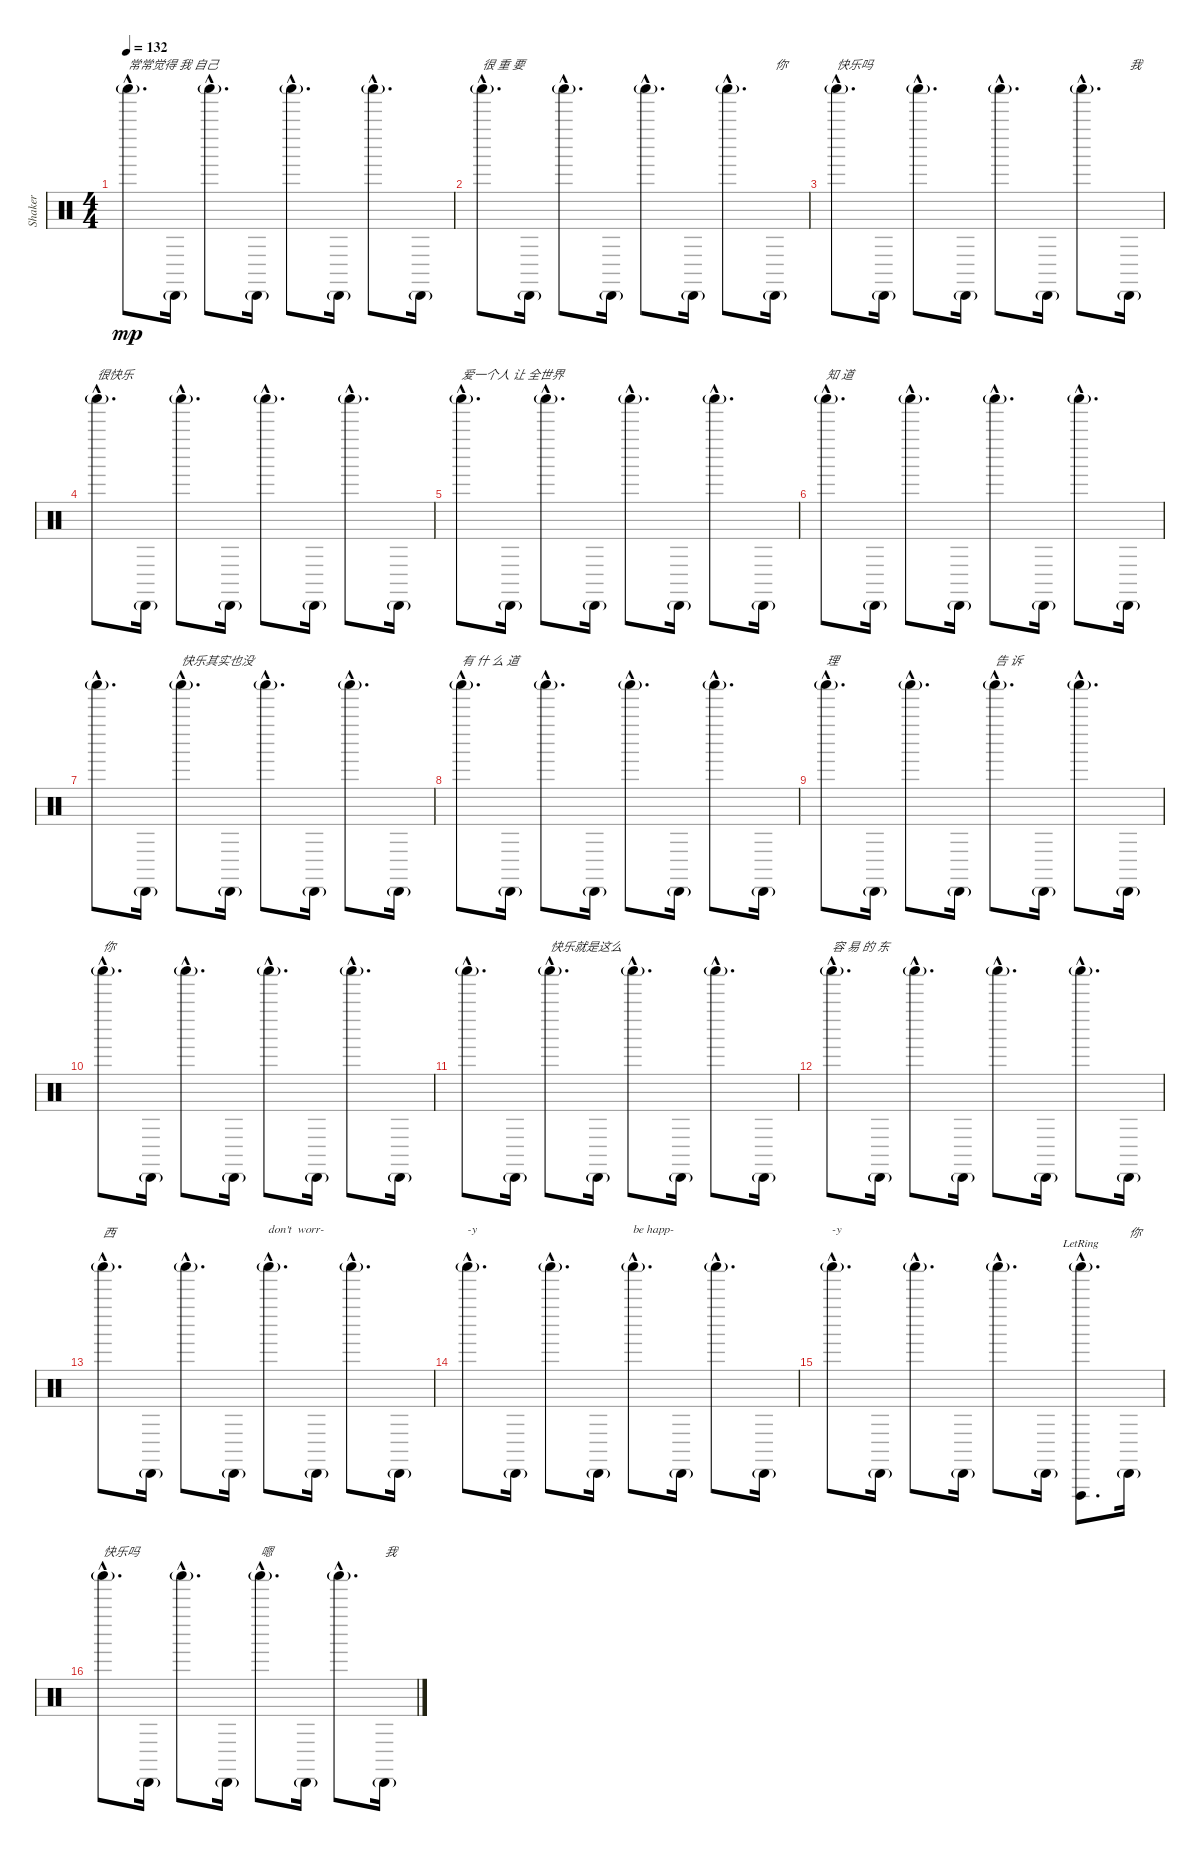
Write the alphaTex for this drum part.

\track ("Shaker" "Shaker") {instrument percussion}
\staff {score}
\articulation defaults
\ts (4 4)
\tempo 132
\clef neutral
\ks c "Shaker (hit)"{g hac}.8{d txt "常常觉得 我 自己" dy mp} "Cabasa (hit)"{g}.16 "Shaker (hit)"{g hac}.8{d} "Cabasa (hit)"{g}.16 "Shaker (hit)"{g hac}.8{d} "Cabasa (hit)"{g}.16 "Shaker (hit)"{g hac}.8{d} "Cabasa (hit)"{g}.16
|
"Shaker (hit)"{g hac}.8{d txt "很 重 要"} "Cabasa (hit)"{g}.16 "Shaker (hit)"{g hac}.8{d} "Cabasa (hit)"{g}.16 "Shaker (hit)"{g hac}.8{d} "Cabasa (hit)"{g}.16 "Shaker (hit)"{g hac}.8{d} "Cabasa (hit)"{g}.16{txt "你"} |
"Shaker (hit)"{g hac}.8{d txt "快乐吗"} "Cabasa (hit)"{g}.16 "Shaker (hit)"{g hac}.8{d} "Cabasa (hit)"{g}.16 "Shaker (hit)"{g hac}.8{d} "Cabasa (hit)"{g}.16 "Shaker (hit)"{g hac}.8{d} "Cabasa (hit)"{g}.16{txt "我"} |
"Shaker (hit)"{g hac}.8{d txt "很快乐"} "Cabasa (hit)"{g}.16 "Shaker (hit)"{g hac}.8{d} "Cabasa (hit)"{g}.16 "Shaker (hit)"{g hac}.8{d} "Cabasa (hit)"{g}.16 "Shaker (hit)"{g hac}.8{d} "Cabasa (hit)"{g}.16 |
"Shaker (hit)"{g hac}.8{d txt "爱一个人 让 全世界"} "Cabasa (hit)"{g}.16 "Shaker (hit)"{g hac}.8{d} "Cabasa (hit)"{g}.16 "Shaker (hit)"{g hac}.8{d} "Cabasa (hit)"{g}.16 "Shaker (hit)"{g hac}.8{d} "Cabasa (hit)"{g}.16 |
"Shaker (hit)"{g hac}.8{d txt "知 道"} "Cabasa (hit)"{g}.16 "Shaker (hit)"{g hac}.8{d} "Cabasa (hit)"{g}.16 "Shaker (hit)"{g hac}.8{d} "Cabasa (hit)"{g}.16 "Shaker (hit)"{g hac}.8{d} "Cabasa (hit)"{g}.16 |
"Shaker (hit)"{g hac}.8{d} "Cabasa (hit)"{g}.16 "Shaker (hit)"{g hac}.8{d txt "快乐其实也没"} "Cabasa (hit)"{g}.16 "Shaker (hit)"{g hac}.8{d} "Cabasa (hit)"{g}.16 "Shaker (hit)"{g hac}.8{d} "Cabasa (hit)"{g}.16 |
"Shaker (hit)"{g hac}.8{d txt "有 什 么 道"} "Cabasa (hit)"{g}.16 "Shaker (hit)"{g hac}.8{d} "Cabasa (hit)"{g}.16 "Shaker (hit)"{g hac}.8{d} "Cabasa (hit)"{g}.16 "Shaker (hit)"{g hac}.8{d} "Cabasa (hit)"{g}.16 |
"Shaker (hit)"{g hac}.8{d txt "理"} "Cabasa (hit)"{g}.16 "Shaker (hit)"{g hac}.8{d} "Cabasa (hit)"{g}.16 "Shaker (hit)"{g hac}.8{d txt "告 诉"} "Cabasa (hit)"{g}.16 "Shaker (hit)"{g hac}.8{d} "Cabasa (hit)"{g}.16 |
"Shaker (hit)"{g hac}.8{d txt "你"} "Cabasa (hit)"{g}.16 "Shaker (hit)"{g hac}.8{d} "Cabasa (hit)"{g}.16 "Shaker (hit)"{g hac}.8{d} "Cabasa (hit)"{g}.16 "Shaker (hit)"{g hac}.8{d} "Cabasa (hit)"{g}.16 |
"Shaker (hit)"{g hac}.8{d} "Cabasa (hit)"{g}.16 "Shaker (hit)"{g hac}.8{d txt "快乐就是这么"} "Cabasa (hit)"{g}.16 "Shaker (hit)"{g hac}.8{d} "Cabasa (hit)"{g}.16 "Shaker (hit)"{g hac}.8{d} "Cabasa (hit)"{g}.16 |
"Shaker (hit)"{g hac}.8{d txt "容 易 的 东"} "Cabasa (hit)"{g}.16 "Shaker (hit)"{g hac}.8{d} "Cabasa (hit)"{g}.16 "Shaker (hit)"{g hac}.8{d} "Cabasa (hit)"{g}.16 "Shaker (hit)"{g hac}.8{d} "Cabasa (hit)"{g}.16 |
"Shaker (hit)"{g hac}.8{d txt "西"} "Cabasa (hit)"{g}.16 "Shaker (hit)"{g hac}.8{d} "Cabasa (hit)"{g}.16 "Shaker (hit)"{g hac}.8{d txt "don't  worr-"} "Cabasa (hit)"{g}.16 "Shaker (hit)"{g hac}.8{d} "Cabasa (hit)"{g}.16 |
"Shaker (hit)"{g hac}.8{d txt "-y"} "Cabasa (hit)"{g}.16 "Shaker (hit)"{g hac}.8{d} "Cabasa (hit)"{g}.16 "Shaker (hit)"{g hac}.8{d txt "be happ-"} "Cabasa (hit)"{g}.16 "Shaker (hit)"{g hac}.8{d} "Cabasa (hit)"{g}.16 |
"Shaker (hit)"{g hac}.8{d txt "-y"} "Cabasa (hit)"{g}.16 "Shaker (hit)"{g hac}.8{d} "Cabasa (hit)"{g}.16 "Shaker (hit)"{g hac}.8{d} "Cabasa (hit)"{g}.16 ("Shaker (hit)"{g hac} "Vibraslap (hit)"{hac lr}).8{d} "Cabasa (hit)"{g}.16{txt "你"} |
"Shaker (hit)"{g hac}.8{d txt "快乐吗 "} "Cabasa (hit)"{g}.16 "Shaker (hit)"{g hac}.8{d} "Cabasa (hit)"{g}.16 "Shaker (hit)"{g hac}.8{d txt "嗯 "} "Cabasa (hit)"{g}.16 "Shaker (hit)"{g hac}.8{d} "Cabasa (hit)"{g}.16{txt "我"}
